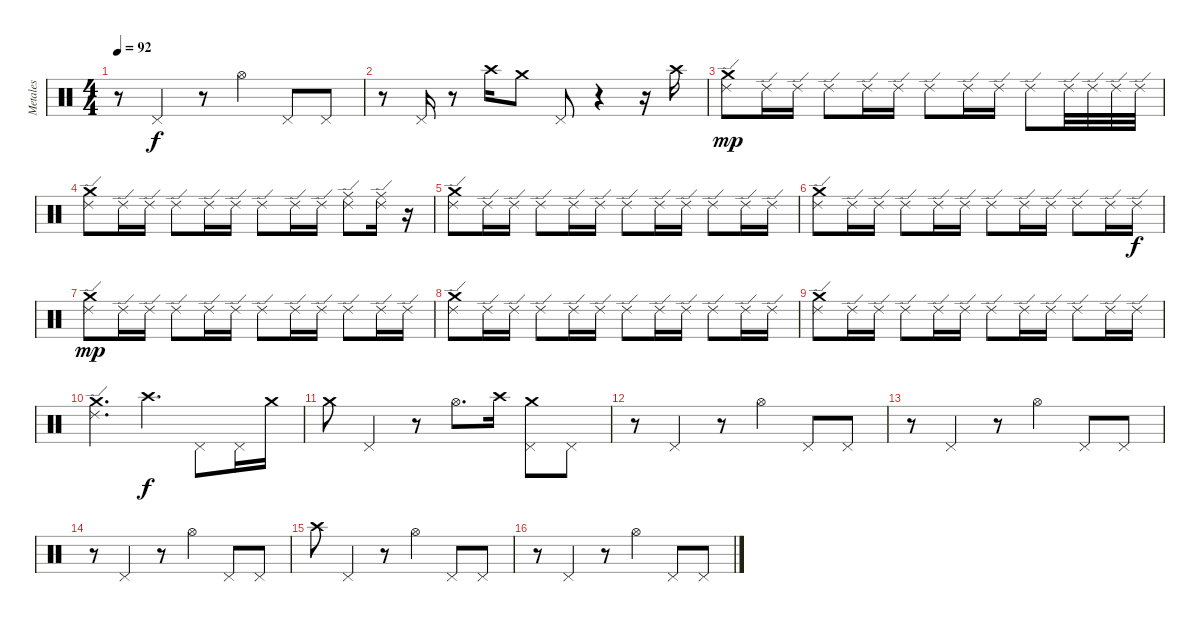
\track ("Metales" "Metales") {instrument percussion}
\staff {score}
\articulation defaults
\ts (4 4)
\tempo 92
\clef neutral
\ks c
r.8{dy f} "Pedal Hi-Hat (hit)".4 r.8 "Hi-Hat (open)".4 "Pedal Hi-Hat (hit)".8 "Pedal Hi-Hat (hit)".8 |
r.8 "Pedal Hi-Hat (hit)".16 r.8 "Crash high (hit)".16 "Crash medium (hit)".8 "Pedal Hi-Hat (hit)".8 r.4 r.16 "Crash high (hit)".16 |
("Ride (edge) 2" "Crash medium (hit)").8{dy mp} "Ride (edge) 2".16 "Ride (edge) 2".16 "Ride (edge) 2".8 "Ride (edge) 2".16 "Ride (edge) 2".16 "Ride (edge) 2".8 "Ride (edge) 2".16 "Ride (edge) 2".16 "Ride (edge) 2".8 "Ride (edge) 2".32 "Ride (edge) 2".32 "Ride (edge) 2".32 "Ride (edge) 2".32 |
("Ride (edge) 2" "Crash medium (hit)").8 "Ride (edge) 2".16 "Ride (edge) 2".16 "Ride (edge) 2".8 "Ride (edge) 2".16 "Ride (edge) 2".16 "Ride (edge) 2".8 "Ride (edge) 2".16 "Ride (edge) 2".16 ("Ride (edge) 2" "Ride (middle)").8 ("Ride (edge) 2" "Ride (middle)").16 r.16 |
("Ride (edge) 2" "Crash medium (hit)").8 "Ride (edge) 2".16 "Ride (edge) 2".16 "Ride (edge) 2".8 "Ride (edge) 2".16 "Ride (edge) 2".16 "Ride (edge) 2".8 "Ride (edge) 2".16 "Ride (edge) 2".16 "Ride (edge) 2".8 "Ride (edge) 2".16 "Ride (edge) 2".16 |
("Ride (edge) 2" "Crash medium (hit)").8 "Ride (edge) 2".16 "Ride (edge) 2".16 "Ride (edge) 2".8 "Ride (edge) 2".16 "Ride (edge) 2".16 "Ride (edge) 2".8 "Ride (edge) 2".16 "Ride (edge) 2".16 "Ride (edge) 2".8 "Ride (edge) 2".16 "Ride (edge) 2".16{dy f} |
("Ride (edge) 2" "Crash medium (hit)").8{dy mp} "Ride (edge) 2".16 "Ride (edge) 2".16 "Ride (edge) 2".8 "Ride (edge) 2".16 "Ride (edge) 2".16 "Ride (edge) 2".8 "Ride (edge) 2".16 "Ride (edge) 2".16 "Ride (edge) 2".8 "Ride (edge) 2".16 "Ride (edge) 2".16 |
("Ride (edge) 2" "Crash medium (hit)").8 "Ride (edge) 2".16 "Ride (edge) 2".16 "Ride (edge) 2".8 "Ride (edge) 2".16 "Ride (edge) 2".16 "Ride (edge) 2".8 "Ride (edge) 2".16 "Ride (edge) 2".16 "Ride (edge) 2".8 "Ride (edge) 2".16 "Ride (edge) 2".16 |
("Ride (edge) 2" "Crash medium (hit)").8 "Ride (edge) 2".16 "Ride (edge) 2".16 "Ride (edge) 2".8 "Ride (edge) 2".16 "Ride (edge) 2".16 "Ride (edge) 2".8 "Ride (edge) 2".16 "Ride (edge) 2".16 "Ride (edge) 2".8 "Ride (edge) 2".16 "Ride (edge) 2".16 |
("Ride (edge) 2" "Crash medium (hit)").4{d} "Crash high (hit)".4{d dy f} "Pedal Hi-Hat (hit)".8 "Pedal Hi-Hat (hit)".16 "Crash medium (hit)".16 |
"Crash medium (hit)".8 "Pedal Hi-Hat (hit)".4 r.8 "Hi-Hat (open)".8{d} "Crash high (hit)".16 ("Crash medium (hit)" "Pedal Hi-Hat (hit)").8 "Pedal Hi-Hat (hit)".8 |
r.8 "Pedal Hi-Hat (hit)".4 r.8 "Hi-Hat (open)".4 "Pedal Hi-Hat (hit)".8 "Pedal Hi-Hat (hit)".8 |
r.8 "Pedal Hi-Hat (hit)".4 r.8 "Hi-Hat (open)".4 "Pedal Hi-Hat (hit)".8 "Pedal Hi-Hat (hit)".8 |
r.8 "Pedal Hi-Hat (hit)".4 r.8 "Hi-Hat (open)".4 "Pedal Hi-Hat (hit)".8 "Pedal Hi-Hat (hit)".8 |
"Crash high (hit)".8 "Pedal Hi-Hat (hit)".4 r.8 "Hi-Hat (open)".4 "Pedal Hi-Hat (hit)".8 "Pedal Hi-Hat (hit)".8 |
r.8 "Pedal Hi-Hat (hit)".4 r.8 "Hi-Hat (open)".4 "Pedal Hi-Hat (hit)".8 "Pedal Hi-Hat (hit)".8
